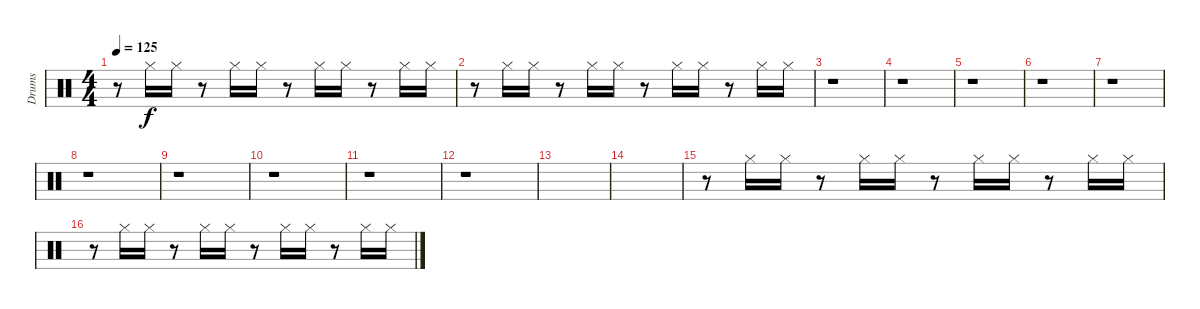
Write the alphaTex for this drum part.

\track ("Drums" "Drums") {instrument percussion}
\staff {score}
\articulation defaults
\ts (4 4)
\tempo 125
\clef neutral
\ks c
r.8{dy f} "Hi-Hat (closed)".16 "Hi-Hat (closed)".16 r.8 "Hi-Hat (closed)".16 "Hi-Hat (closed)".16 r.8 "Hi-Hat (closed)".16 "Hi-Hat (closed)".16 r.8 "Hi-Hat (closed)".16 "Hi-Hat (closed)".16 |
r.8 "Hi-Hat (closed)".16 "Hi-Hat (closed)".16 r.8 "Hi-Hat (closed)".16 "Hi-Hat (closed)".16 r.8 "Hi-Hat (closed)".16 "Hi-Hat (closed)".16 r.8 "Hi-Hat (closed)".16 "Hi-Hat (closed)".16 |
r.1 |
r.1 |
r.1 |
r.1 |
r.1 |
r.1 |
r.1 |
r.1 |
r.1 |
r.1 |
|
|
r.8 "Hi-Hat (closed)".16 "Hi-Hat (closed)".16 r.8 "Hi-Hat (closed)".16 "Hi-Hat (closed)".16 r.8 "Hi-Hat (closed)".16 "Hi-Hat (closed)".16 r.8 "Hi-Hat (closed)".16 "Hi-Hat (closed)".16 |
r.8 "Hi-Hat (closed)".16 "Hi-Hat (closed)".16 r.8 "Hi-Hat (closed)".16 "Hi-Hat (closed)".16 r.8 "Hi-Hat (closed)".16 "Hi-Hat (closed)".16 r.8 "Hi-Hat (closed)".16 "Hi-Hat (closed)".16
